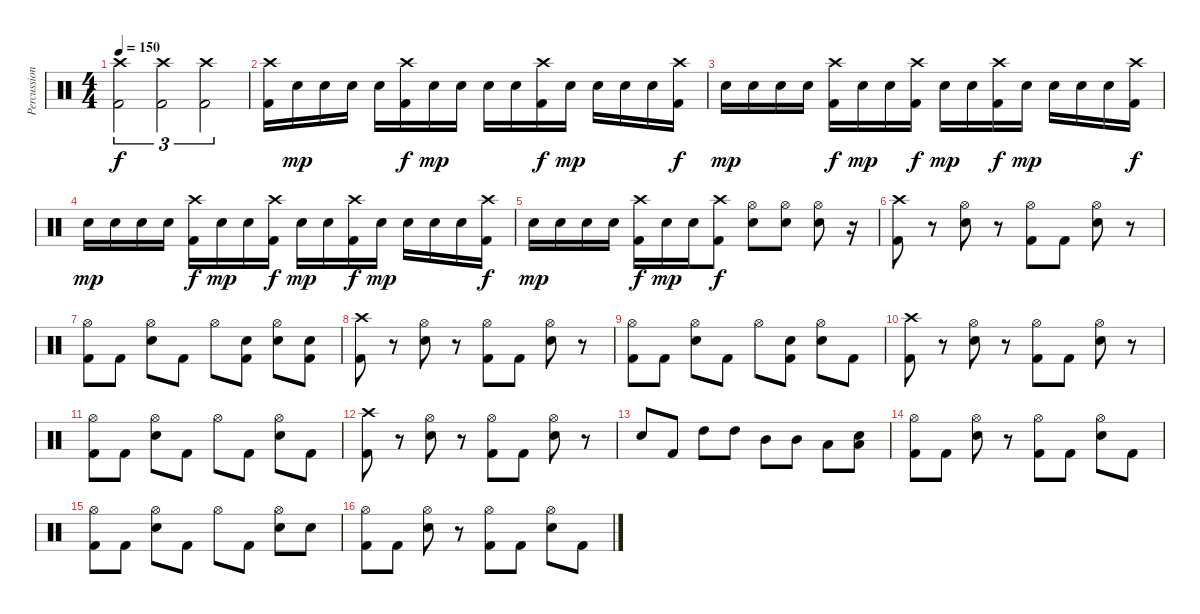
\track ("Percussion" "Percussion") {instrument percussion}
\staff {score}
\articulation defaults
\ts (4 4)
\tempo 150
\clef neutral
\ks c
("Crash high (hit)" "Kick (hit) 2").2{tu (3 2) dy f} ("Crash high (hit)" "Kick (hit) 2").2{tu (3 2)} ("Crash high (hit)" "Kick (hit) 2").2{tu (3 2)} |
("Crash high (hit)" "Kick (hit) 2").16 "Electric Snare (hit)".16{dy mp} "Electric Snare (hit)".16 "Electric Snare (hit)".16 "Electric Snare (hit)".16 ("Crash high (hit)" "Kick (hit) 2").16{dy f} "Electric Snare (hit)".16{dy mp} "Electric Snare (hit)".16 "Electric Snare (hit)".16 "Electric Snare (hit)".16 ("Crash high (hit)" "Kick (hit) 2").16{dy f} "Electric Snare (hit)".16{dy mp} "Electric Snare (hit)".16 "Electric Snare (hit)".16 "Electric Snare (hit)".16 ("Crash high (hit)" "Kick (hit) 2").16{dy f} |
"Electric Snare (hit)".16{dy mp} "Electric Snare (hit)".16 "Electric Snare (hit)".16 "Electric Snare (hit)".16 ("Crash high (hit)" "Kick (hit) 2").16{dy f} "Electric Snare (hit)".16{dy mp} "Electric Snare (hit)".16 ("Crash high (hit)" "Kick (hit) 2").16{dy f} "Electric Snare (hit)".16{dy mp} "Electric Snare (hit)".16 ("Crash high (hit)" "Kick (hit) 2").16{dy f} "Electric Snare (hit)".16{dy mp} "Electric Snare (hit)".16 "Electric Snare (hit)".16 "Electric Snare (hit)".16 ("Crash high (hit)" "Kick (hit) 2").16{dy f} |
"Electric Snare (hit)".16{dy mp} "Electric Snare (hit)".16 "Electric Snare (hit)".16 "Electric Snare (hit)".16 ("Crash high (hit)" "Kick (hit) 2").16{dy f} "Electric Snare (hit)".16{dy mp} "Electric Snare (hit)".16 ("Crash high (hit)" "Kick (hit) 2").16{dy f} "Electric Snare (hit)".16{dy mp} "Electric Snare (hit)".16 ("Crash high (hit)" "Kick (hit) 2").16{dy f} "Electric Snare (hit)".16{dy mp} "Electric Snare (hit)".16 "Electric Snare (hit)".16 "Electric Snare (hit)".16 ("Crash high (hit)" "Kick (hit) 2").16{dy f} |
"Electric Snare (hit)".16{dy mp} "Electric Snare (hit)".16 "Electric Snare (hit)".16 "Electric Snare (hit)".16 ("Crash high (hit)" "Kick (hit) 2").16{dy f} "Electric Snare (hit)".16{dy mp} "Electric Snare (hit)".16 ("Crash high (hit)" "Kick (hit) 2").8{dy f} ("Hi-Hat (open)" "Electric Snare (hit)").8 ("Hi-Hat (open)" "Electric Snare (hit)").8 ("Hi-Hat (open)" "Electric Snare (hit)").8 r.16 |
("Crash high (hit)" "Kick (hit) 2").8 r.8 ("Hi-Hat (open)" "Electric Snare (hit)").8 r.8 ("Hi-Hat (open)" "Kick (hit) 2").8 "Kick (hit) 2".8 ("Hi-Hat (open)" "Electric Snare (hit)").8 r.8 |
("Hi-Hat (open)" "Kick (hit) 2").8 "Kick (hit) 2".8 ("Hi-Hat (open)" "Electric Snare (hit)").8 "Kick (hit) 2".8 "Hi-Hat (open)".8 ("Electric Snare (hit)" "Kick (hit) 2").8 ("Hi-Hat (open)" "Electric Snare (hit)").8 ("Electric Snare (hit)" "Kick (hit) 2").8 |
("Crash high (hit)" "Kick (hit) 2").8 r.8 ("Hi-Hat (open)" "Electric Snare (hit)").8 r.8 ("Hi-Hat (open)" "Kick (hit) 2").8 "Kick (hit) 2".8 ("Hi-Hat (open)" "Electric Snare (hit)").8 r.8 |
("Hi-Hat (open)" "Kick (hit) 2").8 "Kick (hit) 2".8 ("Hi-Hat (open)" "Electric Snare (hit)").8 "Kick (hit) 2".8 "Hi-Hat (open)".8 ("Electric Snare (hit)" "Kick (hit) 2").8 ("Hi-Hat (open)" "Electric Snare (hit)").8 "Kick (hit) 2".8 |
("Crash high (hit)" "Kick (hit) 2").8 r.8 ("Hi-Hat (open)" "Electric Snare (hit)").8 r.8 ("Hi-Hat (open)" "Kick (hit) 2").8 "Kick (hit) 2".8 ("Hi-Hat (open)" "Electric Snare (hit)").8 r.8 |
("Hi-Hat (open)" "Kick (hit) 2").8 "Kick (hit) 2".8 ("Hi-Hat (open)" "Electric Snare (hit)").8 "Kick (hit) 2".8 "Hi-Hat (open)".8 "Kick (hit) 2".8 ("Hi-Hat (open)" "Electric Snare (hit)").8 "Kick (hit) 2".8 |
("Crash high (hit)" "Kick (hit) 2").8 r.8 ("Hi-Hat (open)" "Electric Snare (hit)").8 r.8 ("Hi-Hat (open)" "Kick (hit) 2").8 "Kick (hit) 2".8 ("Hi-Hat (open)" "Electric Snare (hit)").8 r.8 |
"Electric Snare (hit)".8 "Kick (hit) 2".8 "High Tom (hit)".8 "High Tom (hit)".8 "Mid Tom (hit)".8 "Mid Tom (hit)".8 "Low Tom (hit)".8 ("Low Tom (hit)" "Electric Snare (hit)").8 |
("Hi-Hat (open)" "Kick (hit) 2").8 "Kick (hit) 2".8 ("Hi-Hat (open)" "Electric Snare (hit)").8 r.8 ("Hi-Hat (open)" "Kick (hit) 2").8 "Kick (hit) 2".8 ("Hi-Hat (open)" "Electric Snare (hit)").8 "Kick (hit) 2".8 |
("Hi-Hat (open)" "Kick (hit) 2").8 "Kick (hit) 2".8 ("Hi-Hat (open)" "Electric Snare (hit)").8 "Kick (hit) 2".8 "Hi-Hat (open)".8 "Kick (hit) 2".8 ("Hi-Hat (open)" "Electric Snare (hit)").8 "Electric Snare (hit)".8 |
("Hi-Hat (open)" "Kick (hit) 2").8 "Kick (hit) 2".8 ("Hi-Hat (open)" "Electric Snare (hit)").8 r.8 ("Hi-Hat (open)" "Kick (hit) 2").8 "Kick (hit) 2".8 ("Hi-Hat (open)" "Electric Snare (hit)").8 "Kick (hit) 2".8
